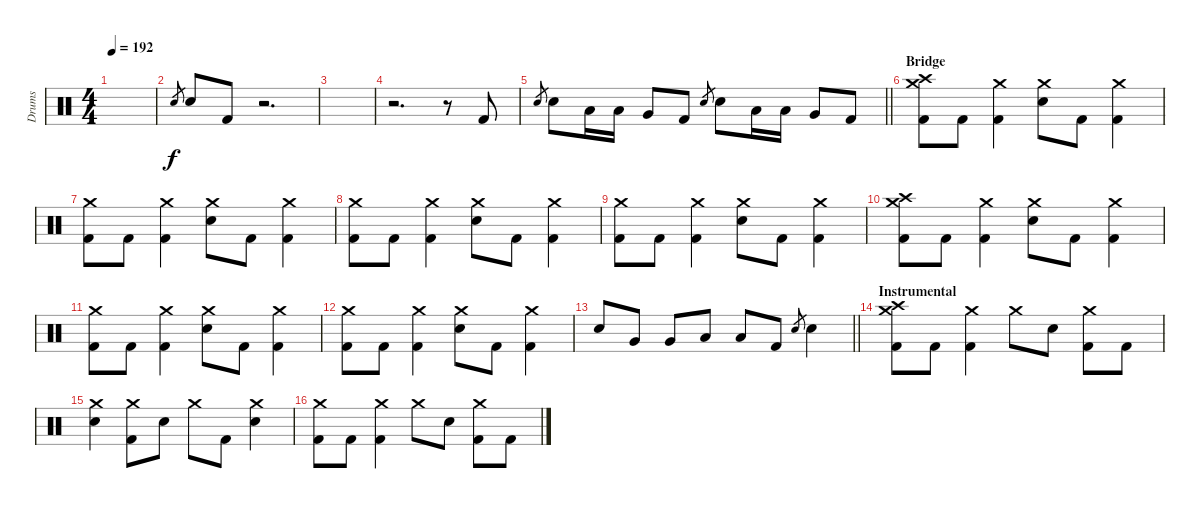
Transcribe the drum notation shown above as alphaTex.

\track ("Drums" "Drums") {instrument percussion}
\staff {score}
\articulation defaults
\ts (4 4)
\tempo 192
\clef neutral
\ks c
|
"Electric Snare (hit)".8{gr} "Electric Snare (hit)".8 "Kick (hit) 2".8 r.2{d} |
|
r.2{d} r.8 "Kick (hit) 2".8 |
\barLineRight lightlight "Electric Snare (hit)".8{gr} "Electric Snare (hit)".8 "Low Floor Tom (hit)".16 "Low Floor Tom (hit)".16 "Very Low Tom (hit)".8 "Kick (hit) 2".8 "Electric Snare (hit)".8{gr} "Electric Snare (hit)".8 "Low Floor Tom (hit)".16 "Low Floor Tom (hit)".16 "Very Low Tom (hit)".8 "Kick (hit) 2".8
|
\section ("" "Bridge")
("Crash high (hit)" "Crash medium (hit)" "Kick (hit) 2").8 "Kick (hit) 2".8 ("Crash medium (hit)" "Kick (hit) 2").4 ("Crash medium (hit)" "Electric Snare (hit)").8 "Kick (hit) 2".8 ("Crash medium (hit)" "Kick (hit) 2").4 |
("Crash medium (hit)" "Kick (hit) 2").8 "Kick (hit) 2".8 ("Crash medium (hit)" "Kick (hit) 2").4 ("Crash medium (hit)" "Electric Snare (hit)").8 "Kick (hit) 2".8 ("Crash medium (hit)" "Kick (hit) 2").4 |
("Crash medium (hit)" "Kick (hit) 2").8 "Kick (hit) 2".8 ("Crash medium (hit)" "Kick (hit) 2").4 ("Crash medium (hit)" "Electric Snare (hit)").8 "Kick (hit) 2".8 ("Crash medium (hit)" "Kick (hit) 2").4 |
("Crash medium (hit)" "Kick (hit) 2").8 "Kick (hit) 2".8 ("Crash medium (hit)" "Kick (hit) 2").4 ("Crash medium (hit)" "Electric Snare (hit)").8 "Kick (hit) 2".8 ("Crash medium (hit)" "Kick (hit) 2").4 |
("Crash high (hit)" "Crash medium (hit)" "Kick (hit) 2").8 "Kick (hit) 2".8 ("Crash medium (hit)" "Kick (hit) 2").4 ("Crash medium (hit)" "Electric Snare (hit)").8 "Kick (hit) 2".8 ("Crash medium (hit)" "Kick (hit) 2").4 |
("Crash medium (hit)" "Kick (hit) 2").8 "Kick (hit) 2".8 ("Crash medium (hit)" "Kick (hit) 2").4 ("Crash medium (hit)" "Electric Snare (hit)").8 "Kick (hit) 2".8 ("Crash medium (hit)" "Kick (hit) 2").4 |
("Crash medium (hit)" "Kick (hit) 2").8 "Kick (hit) 2".8 ("Crash medium (hit)" "Kick (hit) 2").4 ("Crash medium (hit)" "Electric Snare (hit)").8 "Kick (hit) 2".8 ("Crash medium (hit)" "Kick (hit) 2").4 |
\barLineRight lightlight "Electric Snare (hit)".8 "Very Low Tom (hit)".8 "Very Low Tom (hit)".8 "Low Floor Tom (hit)".8 "Low Floor Tom (hit)".8 "Kick (hit) 2".8 "Electric Snare (hit)".8{gr} "Electric Snare (hit)".4
|
\section ("" "Instrumental")
("Crash high (hit)" "Crash medium (hit)" "Kick (hit) 2").8 "Kick (hit) 2".8 ("Crash medium (hit)" "Kick (hit) 2").4 "Crash medium (hit)".8 "Electric Snare (hit)".8 ("Crash medium (hit)" "Kick (hit) 2").8 "Kick (hit) 2".8 |
("Crash medium (hit)" "Electric Snare (hit)").4 ("Crash medium (hit)" "Kick (hit) 2").8 "Electric Snare (hit)".8 "Crash medium (hit)".8 "Kick (hit) 2".8 ("Crash medium (hit)" "Electric Snare (hit)").4 |
("Crash medium (hit)" "Kick (hit) 2").8 "Kick (hit) 2".8 ("Crash medium (hit)" "Kick (hit) 2").4 "Crash medium (hit)".8 "Electric Snare (hit)".8 ("Crash medium (hit)" "Kick (hit) 2").8 "Kick (hit) 2".8
